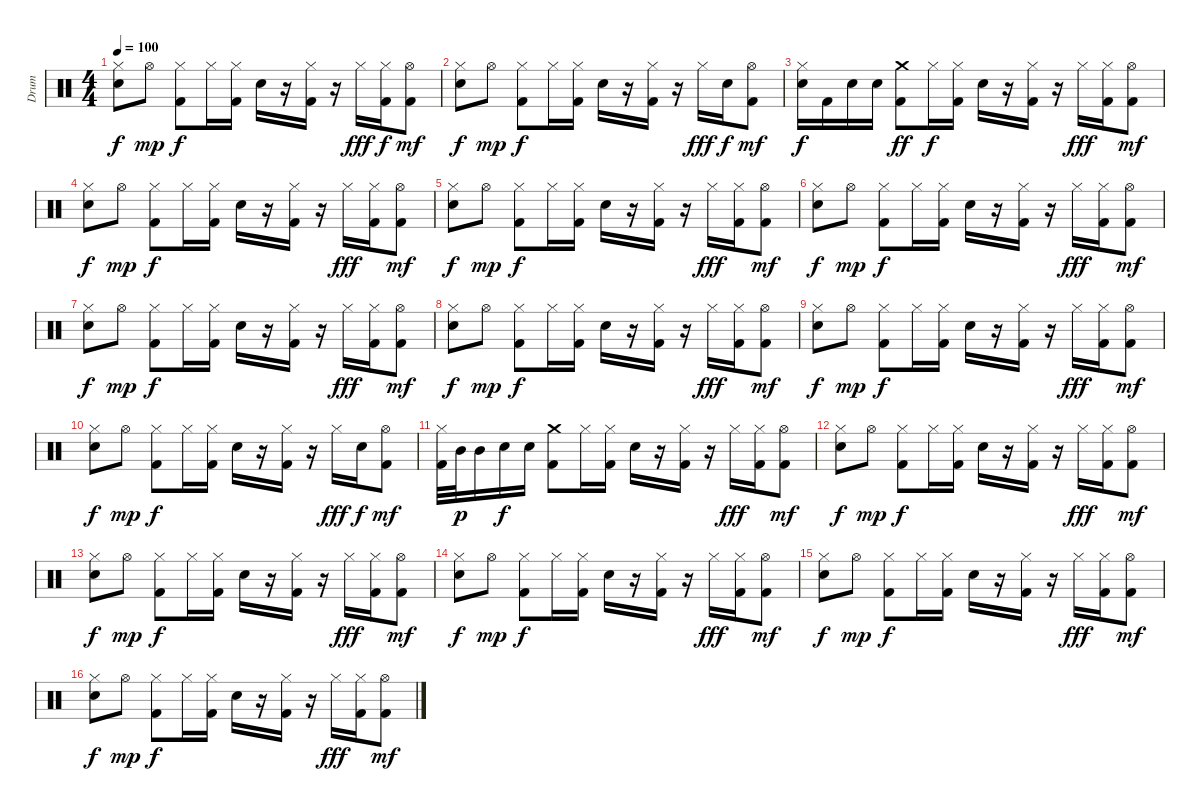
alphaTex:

\track ("Drum" "Drum") {instrument percussion}
\staff {score}
\articulation defaults
\ts (4 4)
\tempo 100
\clef neutral
\ks c
("Snare (hit) 2" "Hi-Hat (closed)").8{dy f} "Hi-Hat (open)".8{dy mp} ("Hi-Hat (closed)" "Kick (hit) 2").8{dy f} "Hi-Hat (closed)".16 ("Hi-Hat (closed)" "Kick (hit) 2").16 "Snare (hit) 2".16 r.16 ("Hi-Hat (closed)" "Kick (hit) 2").16 r.16 "Hi-Hat (closed)".16{dy fff} ("Hi-Hat (closed)" "Kick (hit) 2").16{dy f} ("Hi-Hat (open)" "Kick (hit) 2").8{dy mf} |
("Snare (hit) 2" "Hi-Hat (closed)").8{dy f} "Hi-Hat (open)".8{dy mp} ("Hi-Hat (closed)" "Kick (hit) 2").8{dy f} "Hi-Hat (closed)".16 ("Hi-Hat (closed)" "Kick (hit) 2").16 "Snare (hit) 2".16 r.16 ("Hi-Hat (closed)" "Kick (hit) 2").16 r.16 "Hi-Hat (closed)".16{dy fff} "Snare (hit) 2".16{dy f} ("Hi-Hat (open)" "Kick (hit) 2").8{dy mf} |
("Snare (hit) 2" "Hi-Hat (closed)").16{dy f} "Kick (hit) 2".16 "Snare (hit) 2".16 "Snare (hit) 2".16 ("Crash medium (hit)" "Kick (hit) 2").8{dy ff} "Hi-Hat (closed)".16{dy f} ("Hi-Hat (closed)" "Kick (hit) 2").16 "Snare (hit) 2".16 r.16 ("Hi-Hat (closed)" "Kick (hit) 2").16 r.16 "Hi-Hat (closed)".16{dy fff} ("Hi-Hat (closed)" "Kick (hit) 2").16 ("Hi-Hat (open)" "Kick (hit) 2").8{dy mf} |
("Snare (hit) 2" "Hi-Hat (closed)").8{dy f} "Hi-Hat (open)".8{dy mp} ("Hi-Hat (closed)" "Kick (hit) 2").8{dy f} "Hi-Hat (closed)".16 ("Hi-Hat (closed)" "Kick (hit) 2").16 "Snare (hit) 2".16 r.16 ("Hi-Hat (closed)" "Kick (hit) 2").16 r.16 "Hi-Hat (closed)".16{dy fff} ("Hi-Hat (closed)" "Kick (hit) 2").16 ("Hi-Hat (open)" "Kick (hit) 2").8{dy mf} |
("Snare (hit) 2" "Hi-Hat (closed)").8{dy f} "Hi-Hat (open)".8{dy mp} ("Hi-Hat (closed)" "Kick (hit) 2").8{dy f} "Hi-Hat (closed)".16 ("Hi-Hat (closed)" "Kick (hit) 2").16 "Snare (hit) 2".16 r.16 ("Hi-Hat (closed)" "Kick (hit) 2").16 r.16 "Hi-Hat (closed)".16{dy fff} ("Hi-Hat (closed)" "Kick (hit) 2").16 ("Hi-Hat (open)" "Kick (hit) 2").8{dy mf} |
("Snare (hit) 2" "Hi-Hat (closed)").8{dy f} "Hi-Hat (open)".8{dy mp} ("Hi-Hat (closed)" "Kick (hit) 2").8{dy f} "Hi-Hat (closed)".16 ("Hi-Hat (closed)" "Kick (hit) 2").16 "Snare (hit) 2".16 r.16 ("Hi-Hat (closed)" "Kick (hit) 2").16 r.16 "Hi-Hat (closed)".16{dy fff} ("Hi-Hat (closed)" "Kick (hit) 2").16 ("Hi-Hat (open)" "Kick (hit) 2").8{dy mf} |
("Snare (hit) 2" "Hi-Hat (closed)").8{dy f} "Hi-Hat (open)".8{dy mp} ("Hi-Hat (closed)" "Kick (hit) 2").8{dy f} "Hi-Hat (closed)".16 ("Hi-Hat (closed)" "Kick (hit) 2").16 "Snare (hit) 2".16 r.16 ("Hi-Hat (closed)" "Kick (hit) 2").16 r.16 "Hi-Hat (closed)".16{dy fff} ("Hi-Hat (closed)" "Kick (hit) 2").16 ("Hi-Hat (open)" "Kick (hit) 2").8{dy mf} |
("Snare (hit) 2" "Hi-Hat (closed)").8{dy f} "Hi-Hat (open)".8{dy mp} ("Hi-Hat (closed)" "Kick (hit) 2").8{dy f} "Hi-Hat (closed)".16 ("Hi-Hat (closed)" "Kick (hit) 2").16 "Snare (hit) 2".16 r.16 ("Hi-Hat (closed)" "Kick (hit) 2").16 r.16 "Hi-Hat (closed)".16{dy fff} ("Hi-Hat (closed)" "Kick (hit) 2").16 ("Hi-Hat (open)" "Kick (hit) 2").8{dy mf} |
("Snare (hit) 2" "Hi-Hat (closed)").8{dy f} "Hi-Hat (open)".8{dy mp} ("Hi-Hat (closed)" "Kick (hit) 2").8{dy f} "Hi-Hat (closed)".16 ("Hi-Hat (closed)" "Kick (hit) 2").16 "Snare (hit) 2".16 r.16 ("Hi-Hat (closed)" "Kick (hit) 2").16 r.16 "Hi-Hat (closed)".16{dy fff} ("Hi-Hat (closed)" "Kick (hit) 2").16 ("Hi-Hat (open)" "Kick (hit) 2").8{dy mf} |
("Snare (hit) 2" "Hi-Hat (closed)").8{dy f} "Hi-Hat (open)".8{dy mp} ("Hi-Hat (closed)" "Kick (hit) 2").8{dy f} "Hi-Hat (closed)".16 ("Hi-Hat (closed)" "Kick (hit) 2").16 "Snare (hit) 2".16 r.16 ("Hi-Hat (closed)" "Kick (hit) 2").16 r.16 "Hi-Hat (closed)".16{dy fff} "Snare (hit) 2".16{dy f} ("Hi-Hat (open)" "Kick (hit) 2").8{dy mf} |
("Hi-Hat (closed)" "Kick (hit) 2").32 "Mid Tom (hit)".32{dy p} "Mid Tom (hit)".16 "Snare (hit) 2".16{dy f} "Snare (hit) 2".16 ("Crash medium (hit)" "Kick (hit) 2").8 "Hi-Hat (closed)".16 ("Hi-Hat (closed)" "Kick (hit) 2").16 "Snare (hit) 2".16 r.16 ("Hi-Hat (closed)" "Kick (hit) 2").16 r.16 "Hi-Hat (closed)".16{dy fff} ("Hi-Hat (closed)" "Kick (hit) 2").16 ("Hi-Hat (open)" "Kick (hit) 2").8{dy mf} |
("Snare (hit) 2" "Hi-Hat (closed)").8{dy f} "Hi-Hat (open)".8{dy mp} ("Hi-Hat (closed)" "Kick (hit) 2").8{dy f} "Hi-Hat (closed)".16 ("Hi-Hat (closed)" "Kick (hit) 2").16 "Snare (hit) 2".16 r.16 ("Hi-Hat (closed)" "Kick (hit) 2").16 r.16 "Hi-Hat (closed)".16{dy fff} ("Hi-Hat (closed)" "Kick (hit) 2").16 ("Hi-Hat (open)" "Kick (hit) 2").8{dy mf} |
("Snare (hit) 2" "Hi-Hat (closed)").8{dy f} "Hi-Hat (open)".8{dy mp} ("Hi-Hat (closed)" "Kick (hit) 2").8{dy f} "Hi-Hat (closed)".16 ("Hi-Hat (closed)" "Kick (hit) 2").16 "Snare (hit) 2".16 r.16 ("Hi-Hat (closed)" "Kick (hit) 2").16 r.16 "Hi-Hat (closed)".16{dy fff} ("Hi-Hat (closed)" "Kick (hit) 2").16 ("Hi-Hat (open)" "Kick (hit) 2").8{dy mf} |
("Snare (hit) 2" "Hi-Hat (closed)").8{dy f} "Hi-Hat (open)".8{dy mp} ("Hi-Hat (closed)" "Kick (hit) 2").8{dy f} "Hi-Hat (closed)".16 ("Hi-Hat (closed)" "Kick (hit) 2").16 "Snare (hit) 2".16 r.16 ("Hi-Hat (closed)" "Kick (hit) 2").16 r.16 "Hi-Hat (closed)".16{dy fff} ("Hi-Hat (closed)" "Kick (hit) 2").16 ("Hi-Hat (open)" "Kick (hit) 2").8{dy mf} |
("Snare (hit) 2" "Hi-Hat (closed)").8{dy f} "Hi-Hat (open)".8{dy mp} ("Hi-Hat (closed)" "Kick (hit) 2").8{dy f} "Hi-Hat (closed)".16 ("Hi-Hat (closed)" "Kick (hit) 2").16 "Snare (hit) 2".16 r.16 ("Hi-Hat (closed)" "Kick (hit) 2").16 r.16 "Hi-Hat (closed)".16{dy fff} ("Hi-Hat (closed)" "Kick (hit) 2").16 ("Hi-Hat (open)" "Kick (hit) 2").8{dy mf} |
("Snare (hit) 2" "Hi-Hat (closed)").8{dy f} "Hi-Hat (open)".8{dy mp} ("Hi-Hat (closed)" "Kick (hit) 2").8{dy f} "Hi-Hat (closed)".16 ("Hi-Hat (closed)" "Kick (hit) 2").16 "Snare (hit) 2".16 r.16 ("Hi-Hat (closed)" "Kick (hit) 2").16 r.16 "Hi-Hat (closed)".16{dy fff} ("Hi-Hat (closed)" "Kick (hit) 2").16 ("Hi-Hat (open)" "Kick (hit) 2").8{dy mf}
